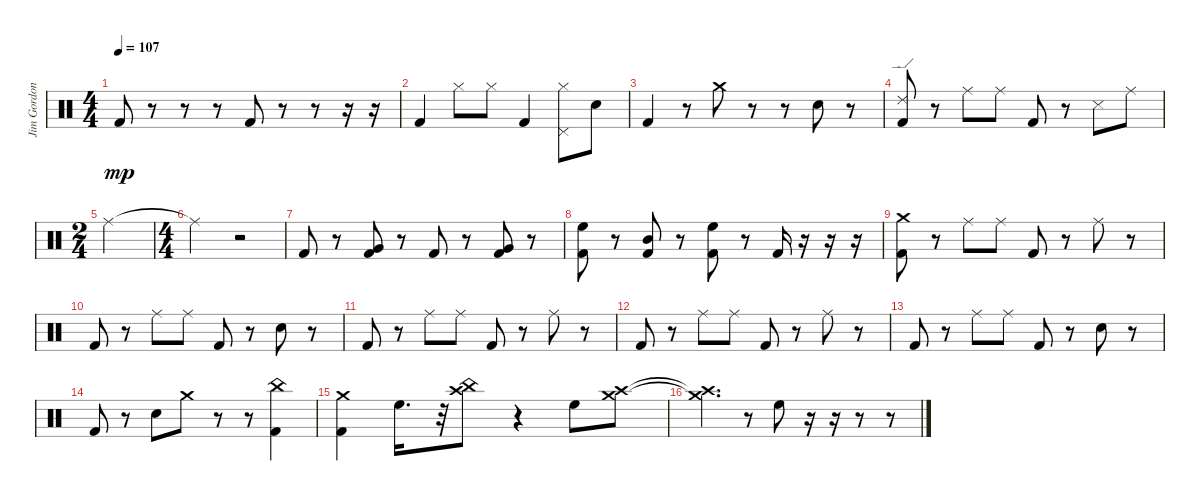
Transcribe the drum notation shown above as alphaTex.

\track ("Jim Gordon (Drums)" "Jim Gordon") {instrument percussion}
\staff {score}
\articulation defaults
\ts (4 4)
\tempo 107
\clef neutral
\ks c "Kick (hit) 2".8{dy mp}
r.8 r.8 r.8 "Kick (hit) 2".8 r.8 r.8 r.16 r.16 |
"Kick (hit) 2".4 "Hi-Hat (closed)".8 "Hi-Hat (closed)".8 "Kick (hit) 2".4 ("Hi-Hat (closed)" "Pedal Hi-Hat (hit)").8 "Snare (hit) 2".8 |
"Kick (hit) 2".4 r.8 "Crash medium (hit)".8 r.8 r.8 "Snare (hit) 2".8 r.8 |
("Ride (edge) 2" "Kick (hit) 2").8 r.8 "Ride (middle)".8 "Ride (middle)".8 "Kick (hit) 2".8 r.8 "Snare (side stick) 3".8 "Ride (middle)".8 |
\ts (2 4)
"Ride (middle)".2 |
\ts (4 4)
"Ride (middle)"{t}.2 r.2 |
"Kick (hit) 2".8 r.8 ("Very Low Tom (hit)" "Kick (hit) 2").8 r.8 "Kick (hit) 2".8 r.8 ("Very Low Tom (hit)" "Kick (hit) 2").8 r.8 |
("High Floor Tom (hit)" "Kick (hit) 2").8 r.8 ("Mid Tom (hit)" "Kick (hit) 2").8 r.8 ("High Floor Tom (hit)" "Kick (hit) 2").8 r.8 "Kick (hit) 2".16 r.16 r.16 r.16 |
("Crash medium (hit)" "Kick (hit) 2").8 r.8 "Ride (middle)".8 "Ride (middle)".8 "Kick (hit) 2".8 r.8 "Ride (middle)".8 r.8 |
"Kick (hit) 2".8 r.8 "Ride (middle)".8 "Ride (middle)".8 "Kick (hit) 2".8 r.8 "Snare (hit) 2".8 r.8 |
"Kick (hit) 2".8 r.8 "Ride (middle)".8 "Ride (middle)".8 "Kick (hit) 2".8 r.8 "Ride (middle)".8 r.8 |
"Kick (hit) 2".8 r.8 "Ride (middle)".8 "Ride (middle)".8 "Kick (hit) 2".8 r.8 "Ride (middle)".8 r.8 |
"Kick (hit) 2".8 r.8 "Ride (middle)".8 "Ride (middle)".8 "Kick (hit) 2".8 r.8 "Snare (hit) 2".8 r.8 |
"Kick (hit) 2".8 r.8 "Snare (hit) 2".8 "Crash medium (hit)".8 r.8 r.8 ("China (hit)" "Kick (hit) 2").4 |
("Crash medium (hit)" "Kick (hit) 2").4 "High Floor Tom (hit)".16{d} r.32 ("Crash high (hit)" "China (hit)").8 r.4 "High Floor Tom (hit)".8 ("Crash high (hit)" "Crash medium (hit)").8 |
("Crash high (hit)"{t} "Crash medium (hit)"{t}).4{d} r.8 "High Floor Tom (hit)".8 r.16 r.16 r.8 r.8
